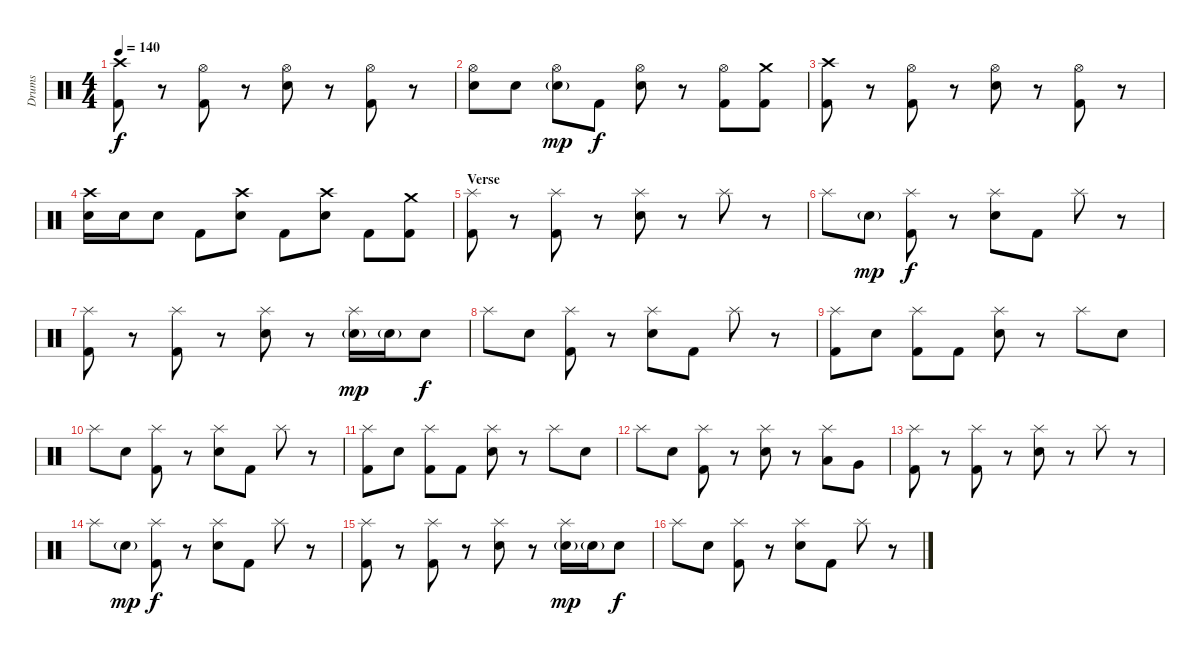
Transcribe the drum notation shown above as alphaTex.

\track ("Drums" "Drums") {instrument percussion}
\staff {score}
\articulation defaults
\ts (4 4)
\tempo 140
\clef neutral
\ks c
("Crash high (hit)" "Kick (hit) 2").8{dy f} r.8 ("Hi-Hat (open)" "Kick (hit) 2").8 r.8 ("Hi-Hat (open)" "Snare (hit) 2").8 r.8 ("Hi-Hat (open)" "Kick (hit) 2").8 r.8 |
("Hi-Hat (open)" "Snare (hit) 2").8 "Snare (hit) 2".8 ("Hi-Hat (open)" "Snare (hit) 2"{g}).8{dy mp} "Kick (hit) 2".8{dy f} ("Hi-Hat (open)" "Snare (hit) 2").8 r.8 ("Hi-Hat (open)" "Kick (hit) 2").8 ("Crash medium (hit)" "Kick (hit) 2").8 |
("Crash high (hit)" "Kick (hit) 2").8 r.8 ("Hi-Hat (open)" "Kick (hit) 2").8 r.8 ("Hi-Hat (open)" "Snare (hit) 2").8 r.8 ("Hi-Hat (open)" "Kick (hit) 2").8 r.8 |
("Crash high (hit)" "Snare (hit) 2").16 "Snare (hit) 2".16 "Snare (hit) 2".8 "Kick (hit) 2".8 ("Crash high (hit)" "Snare (hit) 2").8 "Kick (hit) 2".8 ("Crash high (hit)" "Snare (hit) 2").8 "Kick (hit) 2".8 ("Crash medium (hit)" "Kick (hit) 2").8 |
\section ("" "Verse")
("Splash (hit)" "Kick (hit) 2").8{volume 13} r.8 ("Splash (hit)" "Kick (hit) 2").8 r.8 ("Splash (hit)" "Snare (hit) 2").8 r.8 "Splash (hit)".8 r.8 |
"Splash (hit)".8 "Snare (hit) 2"{g}.8{dy mp} ("Splash (hit)" "Kick (hit) 2").8{dy f} r.8 ("Splash (hit)" "Snare (hit) 2").8 "Kick (hit) 2".8 "Splash (hit)".8 r.8 |
("Splash (hit)" "Kick (hit) 2").8 r.8 ("Splash (hit)" "Kick (hit) 2").8 r.8 ("Splash (hit)" "Snare (hit) 2").8 r.8 ("Splash (hit)" "Snare (hit) 2"{g}).16{dy mp} "Snare (hit) 2"{g}.16 "Snare (hit) 2".8{dy f} |
"Splash (hit)".8 "Snare (hit) 2".8 ("Splash (hit)" "Kick (hit) 2").8 r.8 ("Splash (hit)" "Snare (hit) 2").8 "Kick (hit) 2".8 "Splash (hit)".8 r.8 |
("Splash (hit)" "Kick (hit) 2").8{volume 13} "Snare (hit) 2".8 ("Splash (hit)" "Kick (hit) 2").8 "Kick (hit) 2".8 ("Splash (hit)" "Snare (hit) 2").8 r.8 "Splash (hit)".8 "Snare (hit) 2".8 |
"Splash (hit)".8 "Snare (hit) 2".8 ("Splash (hit)" "Kick (hit) 2").8 r.8 ("Splash (hit)" "Snare (hit) 2").8 "Kick (hit) 2".8 "Splash (hit)".8 r.8 |
("Splash (hit)" "Kick (hit) 2").8 "Snare (hit) 2".8 ("Splash (hit)" "Kick (hit) 2").8 "Kick (hit) 2".8 ("Splash (hit)" "Snare (hit) 2").8 r.8 "Splash (hit)".8 "Snare (hit) 2".8 |
"Splash (hit)".8 "Snare (hit) 2".8 ("Splash (hit)" "Kick (hit) 2").8 r.8 ("Splash (hit)" "Snare (hit) 2").8 r.8 ("Splash (hit)" "Low Floor Tom (hit)").8 "Very Low Tom (hit)".8 |
("Splash (hit)" "Kick (hit) 2").8 r.8 ("Splash (hit)" "Kick (hit) 2").8 r.8 ("Splash (hit)" "Snare (hit) 2").8 r.8 "Splash (hit)".8 r.8 |
"Splash (hit)".8 "Snare (hit) 2"{g}.8{dy mp} ("Splash (hit)" "Kick (hit) 2").8{dy f} r.8 ("Splash (hit)" "Snare (hit) 2").8 "Kick (hit) 2".8 "Splash (hit)".8 r.8 |
("Splash (hit)" "Kick (hit) 2").8 r.8 ("Splash (hit)" "Kick (hit) 2").8 r.8 ("Splash (hit)" "Snare (hit) 2").8 r.8 ("Splash (hit)" "Snare (hit) 2"{g}).16{dy mp} "Snare (hit) 2"{g}.16 "Snare (hit) 2".8{dy f} |
"Splash (hit)".8 "Snare (hit) 2".8 ("Splash (hit)" "Kick (hit) 2").8 r.8 ("Splash (hit)" "Snare (hit) 2").8 "Kick (hit) 2".8 "Splash (hit)".8 r.8
